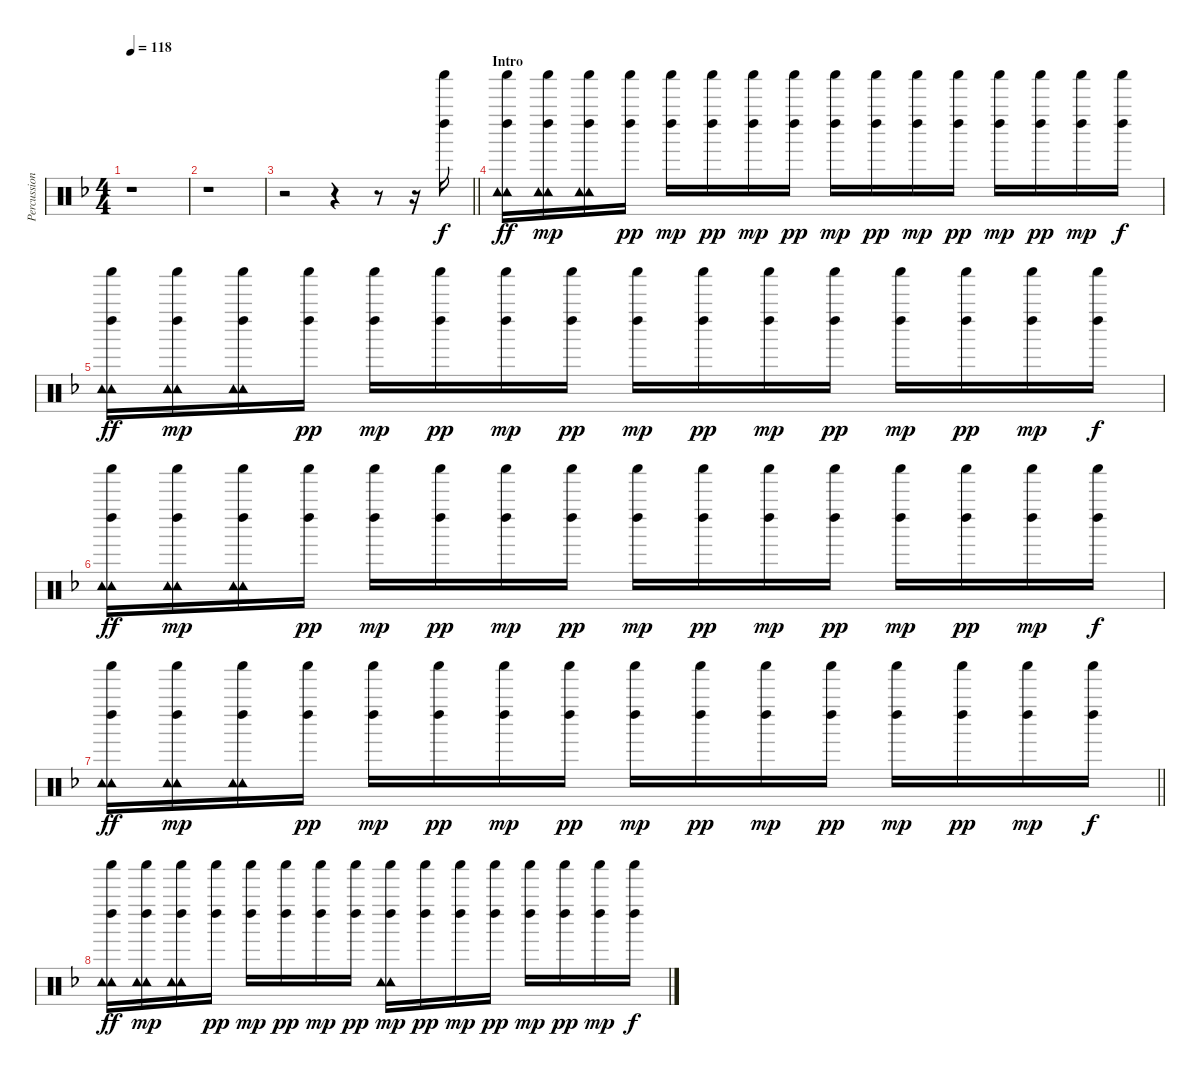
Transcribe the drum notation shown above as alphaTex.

\track ("Percussion" "Percussion") {instrument percussion}
\staff {score}
\articulation defaults
\ts (4 4)
\tempo 118
\clef neutral
\ks f
r.1{dy f} |
r.1 |
\barLineRight lightlight
r.2 r.4 r.8 r.16 ("Left Maraca (hit)" "Shaker (hit)").16 |
\section ("" "Intro")
("Tambourine (hit)" "Tambourine (hit)" "Left Maraca (hit)" "Shaker (hit)").16{dy ff} ("Tambourine (hit)" "Tambourine (hit)" "Left Maraca (hit)" "Shaker (hit)").16{dy mp} ("Tambourine (hit)" "Tambourine (hit)" "Left Maraca (hit)" "Shaker (hit)").16 ("Left Maraca (hit)" "Shaker (hit)").16{dy pp} ("Left Maraca (hit)" "Shaker (hit)").16{dy mp} ("Left Maraca (hit)" "Shaker (hit)").16{dy pp} ("Left Maraca (hit)" "Shaker (hit)").16{dy mp} ("Left Maraca (hit)" "Shaker (hit)").16{dy pp} ("Left Maraca (hit)" "Shaker (hit)").16{dy mp} ("Left Maraca (hit)" "Shaker (hit)").16{dy pp} ("Left Maraca (hit)" "Shaker (hit)").16{dy mp} ("Left Maraca (hit)" "Shaker (hit)").16{dy pp} ("Left Maraca (hit)" "Shaker (hit)").16{dy mp} ("Left Maraca (hit)" "Shaker (hit)").16{dy pp} ("Left Maraca (hit)" "Shaker (hit)").16{dy mp} ("Left Maraca (hit)" "Shaker (hit)").16{dy f} |
("Tambourine (hit)" "Tambourine (hit)" "Left Maraca (hit)" "Shaker (hit)").16{dy ff} ("Tambourine (hit)" "Tambourine (hit)" "Left Maraca (hit)" "Shaker (hit)").16{dy mp} ("Tambourine (hit)" "Tambourine (hit)" "Left Maraca (hit)" "Shaker (hit)").16 ("Left Maraca (hit)" "Shaker (hit)").16{dy pp} ("Left Maraca (hit)" "Shaker (hit)").16{dy mp} ("Left Maraca (hit)" "Shaker (hit)").16{dy pp} ("Left Maraca (hit)" "Shaker (hit)").16{dy mp} ("Left Maraca (hit)" "Shaker (hit)").16{dy pp} ("Left Maraca (hit)" "Shaker (hit)").16{dy mp} ("Left Maraca (hit)" "Shaker (hit)").16{dy pp} ("Left Maraca (hit)" "Shaker (hit)").16{dy mp} ("Left Maraca (hit)" "Shaker (hit)").16{dy pp} ("Left Maraca (hit)" "Shaker (hit)").16{dy mp} ("Left Maraca (hit)" "Shaker (hit)").16{dy pp} ("Left Maraca (hit)" "Shaker (hit)").16{dy mp} ("Left Maraca (hit)" "Shaker (hit)").16{dy f} |
("Tambourine (hit)" "Tambourine (hit)" "Left Maraca (hit)" "Shaker (hit)").16{dy ff} ("Tambourine (hit)" "Tambourine (hit)" "Left Maraca (hit)" "Shaker (hit)").16{dy mp} ("Tambourine (hit)" "Tambourine (hit)" "Left Maraca (hit)" "Shaker (hit)").16 ("Left Maraca (hit)" "Shaker (hit)").16{dy pp} ("Left Maraca (hit)" "Shaker (hit)").16{dy mp} ("Left Maraca (hit)" "Shaker (hit)").16{dy pp} ("Left Maraca (hit)" "Shaker (hit)").16{dy mp} ("Left Maraca (hit)" "Shaker (hit)").16{dy pp} ("Left Maraca (hit)" "Shaker (hit)").16{dy mp} ("Left Maraca (hit)" "Shaker (hit)").16{dy pp} ("Left Maraca (hit)" "Shaker (hit)").16{dy mp} ("Left Maraca (hit)" "Shaker (hit)").16{dy pp} ("Left Maraca (hit)" "Shaker (hit)").16{dy mp} ("Left Maraca (hit)" "Shaker (hit)").16{dy pp} ("Left Maraca (hit)" "Shaker (hit)").16{dy mp} ("Left Maraca (hit)" "Shaker (hit)").16{dy f} |
\barLineRight lightlight
("Tambourine (hit)" "Tambourine (hit)" "Left Maraca (hit)" "Shaker (hit)").16{dy ff} ("Tambourine (hit)" "Tambourine (hit)" "Left Maraca (hit)" "Shaker (hit)").16{dy mp} ("Tambourine (hit)" "Tambourine (hit)" "Left Maraca (hit)" "Shaker (hit)").16 ("Left Maraca (hit)" "Shaker (hit)").16{dy pp} ("Left Maraca (hit)" "Shaker (hit)").16{dy mp} ("Left Maraca (hit)" "Shaker (hit)").16{dy pp} ("Left Maraca (hit)" "Shaker (hit)").16{dy mp} ("Left Maraca (hit)" "Shaker (hit)").16{dy pp} ("Left Maraca (hit)" "Shaker (hit)").16{dy mp} ("Left Maraca (hit)" "Shaker (hit)").16{dy pp} ("Left Maraca (hit)" "Shaker (hit)").16{dy mp} ("Left Maraca (hit)" "Shaker (hit)").16{dy pp} ("Left Maraca (hit)" "Shaker (hit)").16{dy mp} ("Left Maraca (hit)" "Shaker (hit)").16{dy pp} ("Left Maraca (hit)" "Shaker (hit)").16{dy mp} ("Left Maraca (hit)" "Shaker (hit)").16{dy f} |
\section ("" "")
("Tambourine (hit)" "Tambourine (hit)" "Left Maraca (hit)" "Shaker (hit)").16{dy ff} ("Tambourine (hit)" "Tambourine (hit)" "Left Maraca (hit)" "Shaker (hit)").16{dy mp} ("Tambourine (hit)" "Tambourine (hit)" "Left Maraca (hit)" "Shaker (hit)").16 ("Left Maraca (hit)" "Shaker (hit)").16{dy pp} ("Left Maraca (hit)" "Shaker (hit)").16{dy mp} ("Left Maraca (hit)" "Shaker (hit)").16{dy pp} ("Left Maraca (hit)" "Shaker (hit)").16{dy mp} ("Left Maraca (hit)" "Shaker (hit)").16{dy pp} ("Tambourine (hit)" "Tambourine (hit)" "Left Maraca (hit)" "Shaker (hit)").16{dy mp} ("Left Maraca (hit)" "Shaker (hit)").16{dy pp} ("Left Maraca (hit)" "Shaker (hit)").16{dy mp} ("Left Maraca (hit)" "Shaker (hit)").16{dy pp} ("Left Maraca (hit)" "Shaker (hit)").16{dy mp} ("Left Maraca (hit)" "Shaker (hit)").16{dy pp} ("Left Maraca (hit)" "Shaker (hit)").16{dy mp} ("Left Maraca (hit)" "Shaker (hit)").16{dy f}
